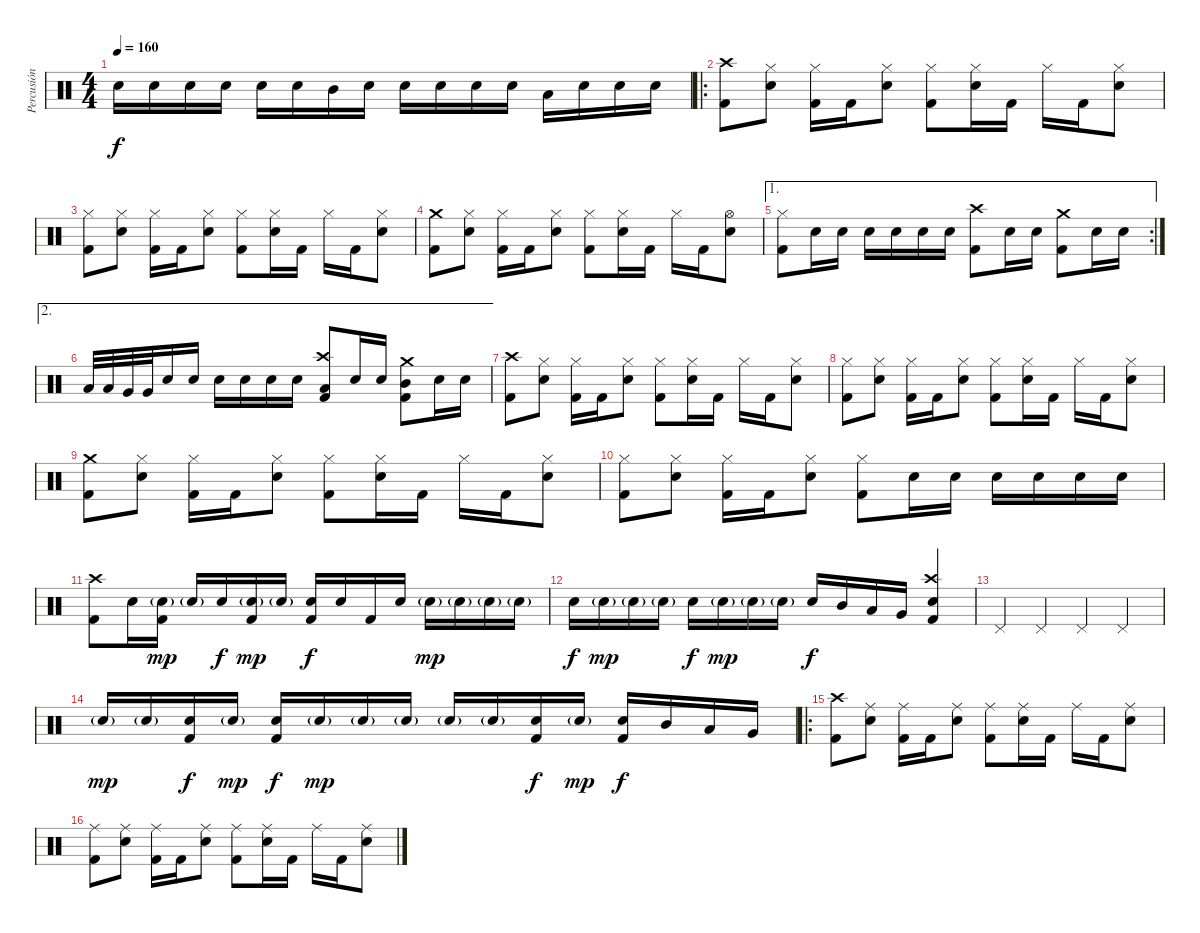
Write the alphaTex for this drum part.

\track ("Percusión" "Percusión") {instrument percussion}
\staff {score}
\articulation defaults
\ts (4 4)
\tempo 160
\clef neutral
\ks c "Electric Snare (hit)".16{dy f} "Electric Snare (hit)".16 "Electric Snare (hit)".16 "Electric Snare (hit)".16 "Electric Snare (hit)".16 "Electric Snare (hit)".16 "Mid Tom (hit)".16 "Electric Snare (hit)".16 "Electric Snare (hit)".16 "Electric Snare (hit)".16 "Electric Snare (hit)".16 "Electric Snare (hit)".16 "Low Tom (hit)".16 "Electric Snare (hit)".16 "Electric Snare (hit)".16 "Electric Snare (hit)".16
|
\ro
("Crash high (hit)" "Kick (hit) 2").8 ("Hi-Hat (closed)" "Electric Snare (hit)").8 ("Hi-Hat (closed)" "Kick (hit) 2").16 "Kick (hit) 2".16 ("Hi-Hat (closed)" "Electric Snare (hit)").8 ("Hi-Hat (closed)" "Kick (hit) 2").8 ("Hi-Hat (closed)" "Electric Snare (hit)").16 "Kick (hit) 2".16 "Hi-Hat (closed)".16 "Kick (hit) 2".16 ("Hi-Hat (closed)" "Electric Snare (hit)").8 |
("Hi-Hat (closed)" "Kick (hit) 2").8 ("Hi-Hat (closed)" "Electric Snare (hit)").8 ("Hi-Hat (closed)" "Kick (hit) 2").16 "Kick (hit) 2".16 ("Hi-Hat (closed)" "Electric Snare (hit)").8 ("Hi-Hat (closed)" "Kick (hit) 2").8 ("Hi-Hat (closed)" "Electric Snare (hit)").16 "Kick (hit) 2".16 "Hi-Hat (closed)".16 "Kick (hit) 2".16 ("Hi-Hat (closed)" "Electric Snare (hit)").8 |
("Crash medium (hit)" "Kick (hit) 2").8 ("Hi-Hat (closed)" "Electric Snare (hit)").8 ("Hi-Hat (closed)" "Kick (hit) 2").16 "Kick (hit) 2".16 ("Hi-Hat (closed)" "Electric Snare (hit)").8 ("Hi-Hat (closed)" "Kick (hit) 2").8 ("Hi-Hat (closed)" "Electric Snare (hit)").16 "Kick (hit) 2".16 "Hi-Hat (closed)".16 "Kick (hit) 2".16 ("Hi-Hat (open)" "Electric Snare (hit)").8 |
\ae 1
\rc 2
("Hi-Hat (closed)" "Kick (hit) 2").8 "Electric Snare (hit)".16 "Electric Snare (hit)".16 "Electric Snare (hit)".16 "Electric Snare (hit)".16 "Electric Snare (hit)".16 "Electric Snare (hit)".16 ("Crash high (hit)" "Kick (hit) 2").8 "Electric Snare (hit)".16 "Electric Snare (hit)".16 ("Crash medium (hit)" "Kick (hit) 2").8 "Electric Snare (hit)".16 "Electric Snare (hit)".16 |
\ae 2 "Low Tom (hit)".32 "Low Tom (hit)".32 "Very Low Tom (hit)".32 "Very Low Tom (hit)".32 "Electric Snare (hit)".16 "Electric Snare (hit)".16 "Electric Snare (hit)".16 "Electric Snare (hit)".16 "Electric Snare (hit)".16 "Electric Snare (hit)".16
("Crash high (hit)" "Low Tom (hit)" "Kick (hit) 2").8 "Electric Snare (hit)".16 "Electric Snare (hit)".16 ("Crash medium (hit)" "Mid Tom (hit)" "Kick (hit) 2").8 "Electric Snare (hit)".16 "Electric Snare (hit)".16 |
("Crash high (hit)" "Kick (hit) 2").8 ("Hi-Hat (closed)" "Electric Snare (hit)").8 ("Hi-Hat (closed)" "Kick (hit) 2").16 "Kick (hit) 2".16 ("Hi-Hat (closed)" "Electric Snare (hit)").8 ("Hi-Hat (closed)" "Kick (hit) 2").8 ("Hi-Hat (closed)" "Electric Snare (hit)").16 "Kick (hit) 2".16 "Hi-Hat (closed)".16 "Kick (hit) 2".16 ("Hi-Hat (closed)" "Electric Snare (hit)").8 |
("Hi-Hat (closed)" "Kick (hit) 2").8 ("Hi-Hat (closed)" "Electric Snare (hit)").8 ("Hi-Hat (closed)" "Kick (hit) 2").16 "Kick (hit) 2".16 ("Hi-Hat (closed)" "Electric Snare (hit)").8 ("Hi-Hat (closed)" "Kick (hit) 2").8 ("Hi-Hat (closed)" "Electric Snare (hit)").16 "Kick (hit) 2".16 "Hi-Hat (closed)".16 "Kick (hit) 2".16 ("Hi-Hat (closed)" "Electric Snare (hit)").8 |
("Crash medium (hit)" "Kick (hit) 2").8 ("Hi-Hat (closed)" "Electric Snare (hit)").8 ("Hi-Hat (closed)" "Kick (hit) 2").16 "Kick (hit) 2".16 ("Hi-Hat (closed)" "Electric Snare (hit)").8 ("Hi-Hat (closed)" "Kick (hit) 2").8 ("Hi-Hat (closed)" "Electric Snare (hit)").16 "Kick (hit) 2".16 "Hi-Hat (closed)".16 "Kick (hit) 2".16 ("Hi-Hat (closed)" "Electric Snare (hit)").8 |
("Hi-Hat (closed)" "Kick (hit) 2").8 ("Hi-Hat (closed)" "Electric Snare (hit)").8 ("Hi-Hat (closed)" "Kick (hit) 2").16 "Kick (hit) 2".16 ("Hi-Hat (closed)" "Electric Snare (hit)").8 ("Hi-Hat (closed)" "Kick (hit) 2").8 "Electric Snare (hit)".16 "Electric Snare (hit)".16 "Electric Snare (hit)".16 "Electric Snare (hit)".16 "Electric Snare (hit)".16 "Electric Snare (hit)".16 |
("Crash high (hit)" "Kick (hit) 2").8 "Electric Snare (hit)".16 ("Electric Snare (hit)"{g} "Kick (hit) 2").16{dy mp} "Electric Snare (hit)"{g}.16 "Electric Snare (hit)".16{dy f} ("Electric Snare (hit)"{g} "Kick (hit) 2").16{dy mp} "Electric Snare (hit)"{g}.16 ("Electric Snare (hit)" "Kick (hit) 2").16{dy f} "Electric Snare (hit)".16 "Kick (hit) 2".16 "Electric Snare (hit)".16 "Electric Snare (hit)"{g}.16{dy mp} "Electric Snare (hit)"{g}.16 "Electric Snare (hit)"{g}.16 "Electric Snare (hit)"{g}.16 |
"Electric Snare (hit)".16{dy f} "Electric Snare (hit)"{g}.16{dy mp} "Electric Snare (hit)"{g}.16 "Electric Snare (hit)"{g}.16 "Electric Snare (hit)".16{dy f} "Electric Snare (hit)"{g}.16{dy mp} "Electric Snare (hit)"{g}.16 "Electric Snare (hit)"{g}.16 "Electric Snare (hit)".16{dy f} "Mid Tom (hit)".16 "Low Tom (hit)".16 "Very Low Tom (hit)".16 ("Crash high (hit)" "Electric Snare (hit)" "Kick (hit) 2").4 |
"Pedal Hi-Hat (hit)".4 "Pedal Hi-Hat (hit)".4 "Pedal Hi-Hat (hit)".4 "Pedal Hi-Hat (hit)".4 |
"Electric Snare (hit)"{g}.16{dy mp} "Electric Snare (hit)"{g}.16 ("Electric Snare (hit)" "Kick (hit) 2").16{dy f} "Electric Snare (hit)"{g}.16{dy mp} ("Electric Snare (hit)" "Kick (hit) 2").16{dy f} "Electric Snare (hit)"{g}.16{dy mp} "Electric Snare (hit)"{g}.16 "Electric Snare (hit)"{g}.16 "Electric Snare (hit)"{g}.16 "Electric Snare (hit)"{g}.16 ("Electric Snare (hit)" "Kick (hit) 2").16{dy f} "Electric Snare (hit)"{g}.16{dy mp} ("Electric Snare (hit)" "Kick (hit) 2").16{dy f} "Mid Tom (hit)".16 "Low Tom (hit)".16 "Very Low Tom (hit)".16 |
\ro
("Crash high (hit)" "Kick (hit) 2").8 ("Ride (middle)" "Electric Snare (hit)").8 ("Ride (middle)" "Kick (hit) 2").16 "Kick (hit) 2".16 ("Ride (middle)" "Electric Snare (hit)").8 ("Ride (middle)" "Kick (hit) 2").8 ("Ride (middle)" "Electric Snare (hit)").16 "Kick (hit) 2".16 "Ride (middle)".16 "Kick (hit) 2".16 ("Ride (middle)" "Electric Snare (hit)").8 |
("Ride (middle)" "Kick (hit) 2").8 ("Ride (middle)" "Electric Snare (hit)").8 ("Ride (middle)" "Kick (hit) 2").16 "Kick (hit) 2".16 ("Ride (middle)" "Electric Snare (hit)").8 ("Ride (middle)" "Kick (hit) 2").8 ("Ride (middle)" "Electric Snare (hit)").16 "Kick (hit) 2".16 "Ride (middle)".16 "Kick (hit) 2".16 ("Ride (middle)" "Electric Snare (hit)").8
